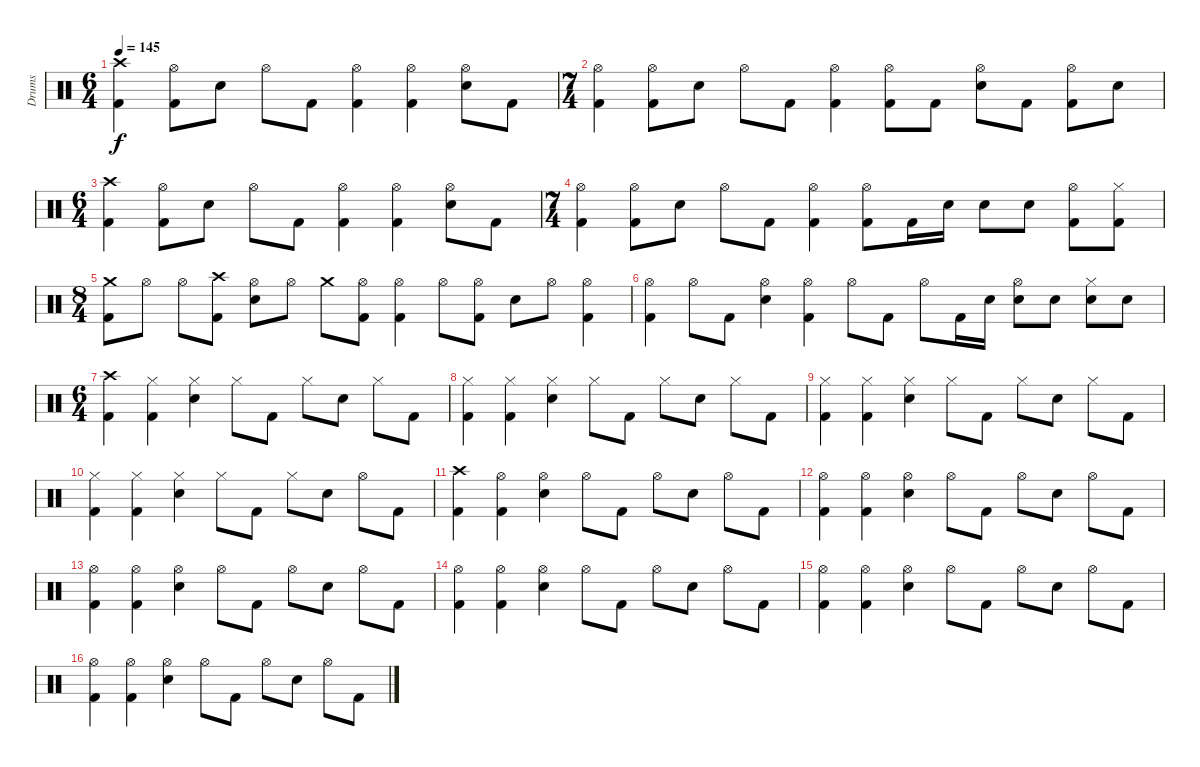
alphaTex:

\track ("Drums" "Drums") {instrument percussion}
\staff {score}
\articulation defaults
\ts (6 4)
\tempo 145
\clef neutral
\ks c
("Crash high (hit)" "Kick (hit) 2").4{dy f} ("Hi-Hat (open)" "Kick (hit) 2").8 "Snare (hit) 2".8 "Hi-Hat (open)".8 "Kick (hit) 2".8 ("Hi-Hat (open)" "Kick (hit) 2").4 ("Hi-Hat (open)" "Kick (hit) 2").4 ("Hi-Hat (open)" "Snare (hit) 2").8 "Kick (hit) 2".8 |
\ts (7 4)
("Hi-Hat (open)" "Kick (hit) 2").4 ("Hi-Hat (open)" "Kick (hit) 2").8 "Snare (hit) 2".8 "Hi-Hat (open)".8 "Kick (hit) 2".8 ("Hi-Hat (open)" "Kick (hit) 2").4 ("Hi-Hat (open)" "Kick (hit) 2").8 "Kick (hit) 2".8 ("Hi-Hat (open)" "Snare (hit) 2").8 "Kick (hit) 2".8 ("Hi-Hat (open)" "Kick (hit) 2").8 "Snare (hit) 2".8 |
\ts (6 4)
("Crash high (hit)" "Kick (hit) 2").4 ("Hi-Hat (open)" "Kick (hit) 2").8 "Snare (hit) 2".8 "Hi-Hat (open)".8 "Kick (hit) 2".8 ("Hi-Hat (open)" "Kick (hit) 2").4 ("Hi-Hat (open)" "Kick (hit) 2").4 ("Hi-Hat (open)" "Snare (hit) 2").8 "Kick (hit) 2".8 |
\ts (7 4)
("Hi-Hat (open)" "Kick (hit) 2").4 ("Hi-Hat (open)" "Kick (hit) 2").8 "Snare (hit) 2".8 "Hi-Hat (open)".8 "Kick (hit) 2".8 ("Hi-Hat (open)" "Kick (hit) 2").4 ("Hi-Hat (open)" "Kick (hit) 2").8 "Kick (hit) 2".16 "Snare (hit) 2".16 "Snare (hit) 2".8 "Snare (hit) 2".8 ("Hi-Hat (open)" "Kick (hit) 2").8 ("Hi-Hat (closed)" "Kick (hit) 2").8 |
\ts (8 4)
("Crash medium (hit)" "Kick (hit) 2").8 "Hi-Hat (open)".8 "Hi-Hat (open)".8 ("Crash high (hit)" "Kick (hit) 2").8 ("Hi-Hat (open)" "Snare (hit) 2").8 "Hi-Hat (open)".8 "Crash medium (hit)".8 ("Hi-Hat (open)" "Kick (hit) 2").8 ("Hi-Hat (open)" "Kick (hit) 2").4 "Hi-Hat (open)".8 ("Hi-Hat (open)" "Kick (hit) 2").8 "Snare (hit) 2".8 "Hi-Hat (open)".8 ("Hi-Hat (open)" "Kick (hit) 2").4 |
("Hi-Hat (open)" "Kick (hit) 2").4 "Hi-Hat (open)".8 "Kick (hit) 2".8 ("Hi-Hat (open)" "Snare (hit) 2").4 ("Hi-Hat (open)" "Kick (hit) 2").4 "Hi-Hat (open)".8 "Kick (hit) 2".8 "Hi-Hat (open)".8 "Kick (hit) 2".16 "Snare (hit) 2".16 ("Hi-Hat (open)" "Snare (hit) 2").8 "Snare (hit) 2".8 ("Hi-Hat (closed)" "Snare (hit) 2").8 "Snare (hit) 2".8 |
\ts (6 4)
("Crash high (hit)" "Kick (hit) 2").4 ("Hi-Hat (closed)" "Kick (hit) 2").4 ("Hi-Hat (closed)" "Snare (hit) 2").4 "Hi-Hat (closed)".8 "Kick (hit) 2".8 "Hi-Hat (closed)".8 "Snare (hit) 2".8 "Hi-Hat (closed)".8 "Kick (hit) 2".8 |
("Hi-Hat (closed)" "Kick (hit) 2").4 ("Hi-Hat (closed)" "Kick (hit) 2").4 ("Hi-Hat (closed)" "Snare (hit) 2").4 "Hi-Hat (closed)".8 "Kick (hit) 2".8 "Hi-Hat (closed)".8 "Snare (hit) 2".8 "Hi-Hat (closed)".8 "Kick (hit) 2".8 |
("Hi-Hat (closed)" "Kick (hit) 2").4 ("Hi-Hat (closed)" "Kick (hit) 2").4 ("Hi-Hat (closed)" "Snare (hit) 2").4 "Hi-Hat (closed)".8 "Kick (hit) 2".8 "Hi-Hat (closed)".8 "Snare (hit) 2".8 "Hi-Hat (closed)".8 "Kick (hit) 2".8 |
("Hi-Hat (closed)" "Kick (hit) 2").4 ("Hi-Hat (closed)" "Kick (hit) 2").4 ("Hi-Hat (closed)" "Snare (hit) 2").4 "Hi-Hat (closed)".8 "Kick (hit) 2".8 "Hi-Hat (closed)".8 "Snare (hit) 2".8 "Hi-Hat (open)".8 "Kick (hit) 2".8 |
("Crash high (hit)" "Kick (hit) 2").4 ("Hi-Hat (open)" "Kick (hit) 2").4 ("Hi-Hat (open)" "Snare (hit) 2").4 "Hi-Hat (open)".8 "Kick (hit) 2".8 "Hi-Hat (open)".8 "Snare (hit) 2".8 "Hi-Hat (open)".8 "Kick (hit) 2".8 |
("Hi-Hat (open)" "Kick (hit) 2").4 ("Hi-Hat (open)" "Kick (hit) 2").4 ("Hi-Hat (open)" "Snare (hit) 2").4 "Hi-Hat (open)".8 "Kick (hit) 2".8 "Hi-Hat (open)".8 "Snare (hit) 2".8 "Hi-Hat (open)".8 "Kick (hit) 2".8 |
("Hi-Hat (open)" "Kick (hit) 2").4 ("Hi-Hat (open)" "Kick (hit) 2").4 ("Hi-Hat (open)" "Snare (hit) 2").4 "Hi-Hat (open)".8 "Kick (hit) 2".8 "Hi-Hat (open)".8 "Snare (hit) 2".8 "Hi-Hat (open)".8 "Kick (hit) 2".8 |
("Hi-Hat (open)" "Kick (hit) 2").4 ("Hi-Hat (open)" "Kick (hit) 2").4 ("Hi-Hat (open)" "Snare (hit) 2").4 "Hi-Hat (open)".8 "Kick (hit) 2".8 "Hi-Hat (open)".8 "Snare (hit) 2".8 "Hi-Hat (open)".8 "Kick (hit) 2".8 |
("Hi-Hat (open)" "Kick (hit) 2").4 ("Hi-Hat (open)" "Kick (hit) 2").4 ("Hi-Hat (open)" "Snare (hit) 2").4 "Hi-Hat (open)".8 "Kick (hit) 2".8 "Hi-Hat (open)".8 "Snare (hit) 2".8 "Hi-Hat (open)".8 "Kick (hit) 2".8 |
("Hi-Hat (open)" "Kick (hit) 2").4 ("Hi-Hat (open)" "Kick (hit) 2").4 ("Hi-Hat (open)" "Snare (hit) 2").4 "Hi-Hat (open)".8 "Kick (hit) 2".8 "Hi-Hat (open)".8 "Snare (hit) 2".8 "Hi-Hat (open)".8 "Kick (hit) 2".8
